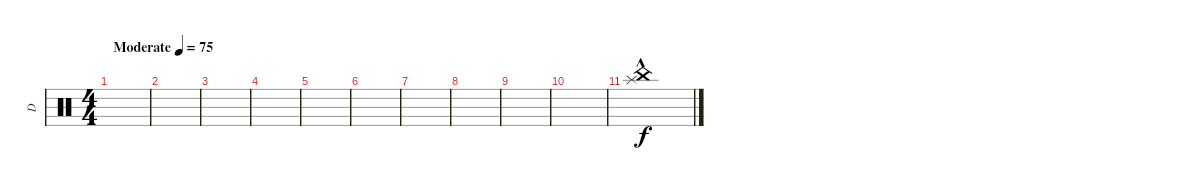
\track ("D" "D") {instrument percussion}
\staff {score}
\articulation defaults
\ts (4 4)
\tempo (75 "Moderate")
\clef neutral
\ks c
|
|
|
|
|
|
|
|
|
|
("China (hit)" "Splash (hit)"{hac}).1
